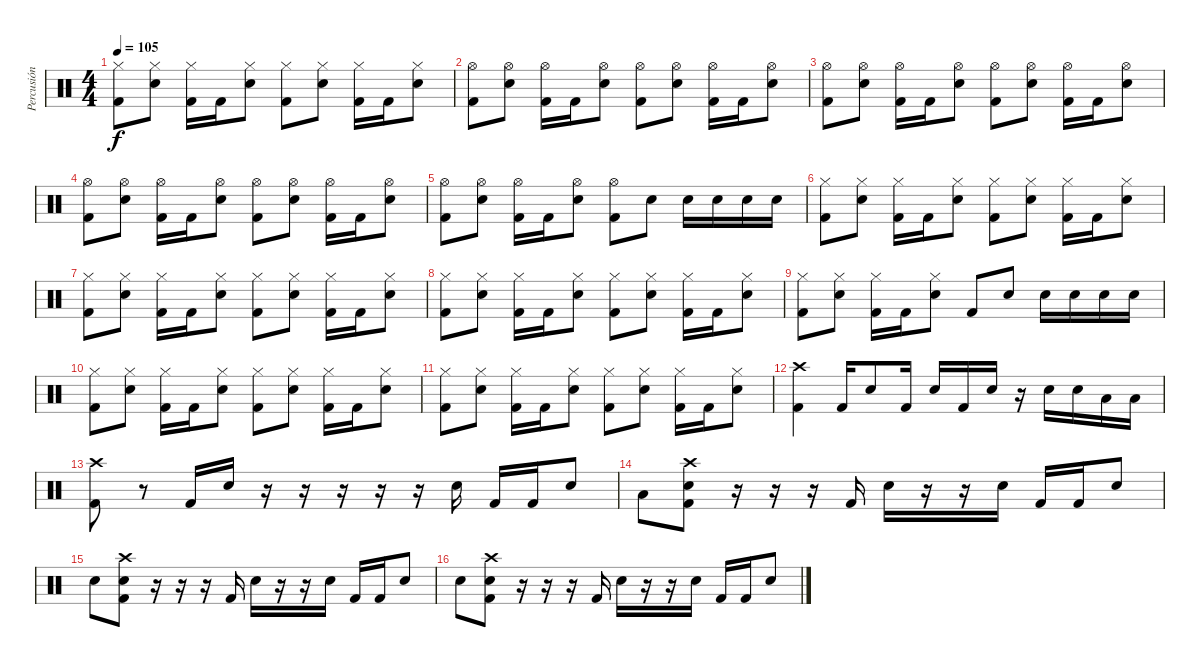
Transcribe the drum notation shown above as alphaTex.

\track ("Percusión" "Percusión") {instrument percussion}
\staff {score}
\articulation defaults
\ts (4 4)
\tempo 105
\clef neutral
\ks c
("Hi-Hat (closed)" "Kick (hit) 2").8{dy f} ("Hi-Hat (closed)" "Electric Snare (hit)").8 ("Hi-Hat (closed)" "Kick (hit) 2").16 "Kick (hit) 2".16 ("Hi-Hat (closed)" "Electric Snare (hit)").8 ("Hi-Hat (closed)" "Kick (hit) 2").8 ("Hi-Hat (closed)" "Electric Snare (hit)").8 ("Hi-Hat (closed)" "Kick (hit) 2").16 "Kick (hit) 2".16 ("Hi-Hat (closed)" "Electric Snare (hit)").8 |
("Hi-Hat (open)" "Kick (hit) 2").8 ("Hi-Hat (open)" "Electric Snare (hit)").8 ("Hi-Hat (open)" "Kick (hit) 2").16 "Kick (hit) 2".16 ("Hi-Hat (open)" "Electric Snare (hit)").8 ("Hi-Hat (open)" "Kick (hit) 2").8 ("Hi-Hat (open)" "Electric Snare (hit)").8 ("Hi-Hat (open)" "Kick (hit) 2").16 "Kick (hit) 2".16 ("Hi-Hat (open)" "Electric Snare (hit)").8 |
("Hi-Hat (open)" "Kick (hit) 2").8 ("Hi-Hat (open)" "Electric Snare (hit)").8 ("Hi-Hat (open)" "Kick (hit) 2").16 "Kick (hit) 2".16 ("Hi-Hat (open)" "Electric Snare (hit)").8 ("Hi-Hat (open)" "Kick (hit) 2").8 ("Hi-Hat (open)" "Electric Snare (hit)").8 ("Hi-Hat (open)" "Kick (hit) 2").16 "Kick (hit) 2".16 ("Hi-Hat (open)" "Electric Snare (hit)").8 |
("Hi-Hat (open)" "Kick (hit) 2").8 ("Hi-Hat (open)" "Electric Snare (hit)").8 ("Hi-Hat (open)" "Kick (hit) 2").16 "Kick (hit) 2".16 ("Hi-Hat (open)" "Electric Snare (hit)").8 ("Hi-Hat (open)" "Kick (hit) 2").8 ("Hi-Hat (open)" "Electric Snare (hit)").8 ("Hi-Hat (open)" "Kick (hit) 2").16 "Kick (hit) 2".16 ("Hi-Hat (open)" "Electric Snare (hit)").8 |
("Hi-Hat (open)" "Kick (hit) 2").8 ("Hi-Hat (open)" "Electric Snare (hit)").8 ("Hi-Hat (open)" "Kick (hit) 2").16 "Kick (hit) 2".16 ("Hi-Hat (open)" "Electric Snare (hit)").8 ("Hi-Hat (open)" "Kick (hit) 2").8 "Electric Snare (hit)".8 "Electric Snare (hit)".16 "Electric Snare (hit)".16 "Electric Snare (hit)".16 "Electric Snare (hit)".16 |
("Hi-Hat (closed)" "Kick (hit) 2").8 ("Hi-Hat (closed)" "Electric Snare (hit)").8 ("Hi-Hat (closed)" "Kick (hit) 2").16 "Kick (hit) 2".16 ("Hi-Hat (closed)" "Electric Snare (hit)").8 ("Hi-Hat (closed)" "Kick (hit) 2").8 ("Hi-Hat (closed)" "Electric Snare (hit)").8 ("Hi-Hat (closed)" "Kick (hit) 2").16 "Kick (hit) 2".16 ("Hi-Hat (closed)" "Electric Snare (hit)").8 |
("Hi-Hat (closed)" "Kick (hit) 2").8 ("Hi-Hat (closed)" "Electric Snare (hit)").8 ("Hi-Hat (closed)" "Kick (hit) 2").16 "Kick (hit) 2".16 ("Hi-Hat (closed)" "Electric Snare (hit)").8 ("Hi-Hat (closed)" "Kick (hit) 2").8 ("Hi-Hat (closed)" "Electric Snare (hit)").8 ("Hi-Hat (closed)" "Kick (hit) 2").16 "Kick (hit) 2".16 ("Hi-Hat (closed)" "Electric Snare (hit)").8 |
("Hi-Hat (closed)" "Kick (hit) 2").8 ("Hi-Hat (closed)" "Electric Snare (hit)").8 ("Hi-Hat (closed)" "Kick (hit) 2").16 "Kick (hit) 2".16 ("Hi-Hat (closed)" "Electric Snare (hit)").8 ("Hi-Hat (closed)" "Kick (hit) 2").8 ("Hi-Hat (closed)" "Electric Snare (hit)").8 ("Hi-Hat (closed)" "Kick (hit) 2").16 "Kick (hit) 2".16 ("Hi-Hat (closed)" "Electric Snare (hit)").8 |
("Hi-Hat (closed)" "Kick (hit) 2").8 ("Hi-Hat (closed)" "Electric Snare (hit)").8 ("Hi-Hat (closed)" "Kick (hit) 2").16 "Kick (hit) 2".16 ("Hi-Hat (closed)" "Electric Snare (hit)").8 "Kick (hit) 2".8 "Electric Snare (hit)".8 "Electric Snare (hit)".16 "Electric Snare (hit)".16 "Electric Snare (hit)".16 "Electric Snare (hit)".16 |
("Hi-Hat (closed)" "Kick (hit) 2").8 ("Hi-Hat (closed)" "Electric Snare (hit)").8 ("Hi-Hat (closed)" "Kick (hit) 2").16 "Kick (hit) 2".16 ("Hi-Hat (closed)" "Electric Snare (hit)").8 ("Hi-Hat (closed)" "Kick (hit) 2").8 ("Hi-Hat (closed)" "Electric Snare (hit)").8 ("Hi-Hat (closed)" "Kick (hit) 2").16 "Kick (hit) 2".16 ("Hi-Hat (closed)" "Electric Snare (hit)").8 |
("Hi-Hat (closed)" "Kick (hit) 2").8 ("Hi-Hat (closed)" "Electric Snare (hit)").8 ("Hi-Hat (closed)" "Kick (hit) 2").16 "Kick (hit) 2".16 ("Hi-Hat (closed)" "Electric Snare (hit)").8 ("Hi-Hat (closed)" "Kick (hit) 2").8 ("Hi-Hat (closed)" "Electric Snare (hit)").8 ("Hi-Hat (closed)" "Kick (hit) 2").16 "Kick (hit) 2".16 ("Hi-Hat (closed)" "Electric Snare (hit)").8 |
("Crash high (hit)" "Kick (hit) 2").4 "Kick (hit) 2".16 "Electric Snare (hit)".8 "Kick (hit) 2".16 "Electric Snare (hit)".16 "Kick (hit) 2".16 "Electric Snare (hit)".16 r.16 "Electric Snare (hit)".16 "Electric Snare (hit)".16 "Low Tom (hit)".16 "Low Tom (hit)".16 |
("Crash high (hit)" "Kick (hit) 2").8 r.8 "Kick (hit) 2".16 "Electric Snare (hit)".16 r.16 r.16 r.16 r.16 r.16 "Electric Snare (hit)".16 "Kick (hit) 2".16 "Kick (hit) 2".16 "Electric Snare (hit)".8 |
"Low Tom (hit)".8 ("Crash high (hit)" "Electric Snare (hit)" "Kick (hit) 2").8 r.16 r.16 r.16 "Kick (hit) 2".16 "Electric Snare (hit)".16 r.16 r.16 "Electric Snare (hit)".16 "Kick (hit) 2".16 "Kick (hit) 2".16 "Electric Snare (hit)".8 |
"Electric Snare (hit)".8 ("Crash high (hit)" "Electric Snare (hit)" "Kick (hit) 2").8 r.16 r.16 r.16 "Kick (hit) 2".16 "Electric Snare (hit)".16 r.16 r.16 "Electric Snare (hit)".16 "Kick (hit) 2".16 "Kick (hit) 2".16 "Electric Snare (hit)".8 |
"Electric Snare (hit)".8 ("Crash high (hit)" "Electric Snare (hit)" "Kick (hit) 2").8 r.16 r.16 r.16 "Kick (hit) 2".16 "Electric Snare (hit)".16 r.16 r.16 "Electric Snare (hit)".16 "Kick (hit) 2".16 "Kick (hit) 2".16 "Electric Snare (hit)".8
